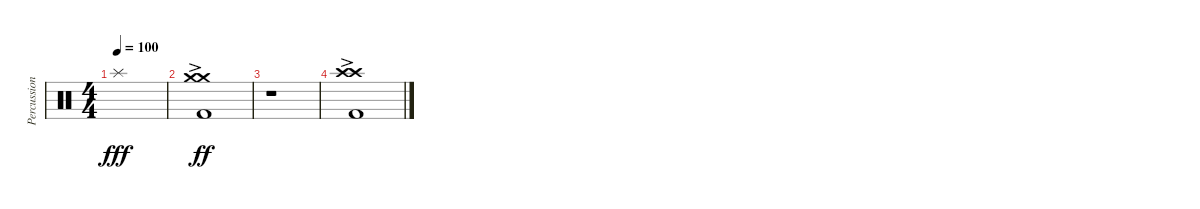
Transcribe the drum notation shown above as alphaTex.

\track ("Percussion" "Percussion") {instrument percussion}
\staff {score}
\articulation defaults
\ts (4 4)
\tempo 100
\clef neutral
\ks c "Splash (hit)".1{dy fff}
|
("Crash medium (hit)"{ac} "Crash medium (hit)" "Kick (hit) 2"{ac}).1{dy ff} |
r.1 |
("Crash high (hit)"{ac} "Crash high (hit)" "Kick (hit) 2"{ac}).1
